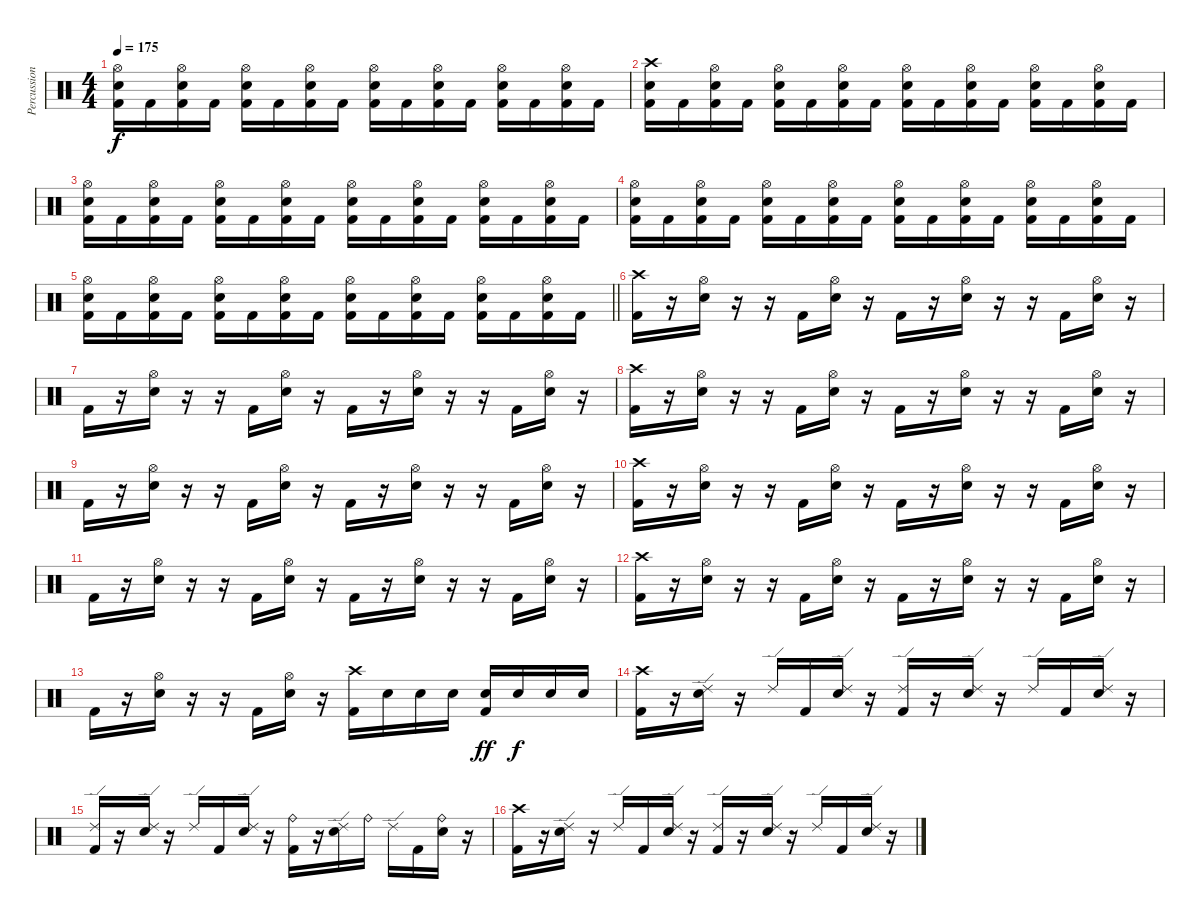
\track ("Percussion" "Percussion") {instrument percussion}
\staff {score}
\articulation defaults
\ts (4 4)
\tempo 175
\clef neutral
\ks c
("Hi-Hat (open)" "Snare (hit) 2" "Kick (hit) 2").16{dy f} "Kick (hit) 2".16 ("Hi-Hat (open)" "Snare (hit) 2" "Kick (hit) 2").16 "Kick (hit) 2".16 ("Hi-Hat (open)" "Snare (hit) 2" "Kick (hit) 2").16 "Kick (hit) 2".16 ("Hi-Hat (open)" "Snare (hit) 2" "Kick (hit) 2").16 "Kick (hit) 2".16 ("Hi-Hat (open)" "Snare (hit) 2" "Kick (hit) 2").16 "Kick (hit) 2".16 ("Hi-Hat (open)" "Snare (hit) 2" "Kick (hit) 2").16 "Kick (hit) 2".16 ("Hi-Hat (open)" "Snare (hit) 2" "Kick (hit) 2").16 "Kick (hit) 2".16 ("Hi-Hat (open)" "Snare (hit) 2" "Kick (hit) 2").16 "Kick (hit) 2".16 |
("Crash high (hit)" "Snare (hit) 2" "Kick (hit) 2").16 "Kick (hit) 2".16 ("Hi-Hat (open)" "Snare (hit) 2" "Kick (hit) 2").16 "Kick (hit) 2".16 ("Hi-Hat (open)" "Snare (hit) 2" "Kick (hit) 2").16 "Kick (hit) 2".16 ("Hi-Hat (open)" "Snare (hit) 2" "Kick (hit) 2").16 "Kick (hit) 2".16 ("Hi-Hat (open)" "Snare (hit) 2" "Kick (hit) 2").16 "Kick (hit) 2".16 ("Hi-Hat (open)" "Snare (hit) 2" "Kick (hit) 2").16 "Kick (hit) 2".16 ("Hi-Hat (open)" "Snare (hit) 2" "Kick (hit) 2").16 "Kick (hit) 2".16 ("Hi-Hat (open)" "Snare (hit) 2" "Kick (hit) 2").16 "Kick (hit) 2".16 |
("Hi-Hat (open)" "Snare (hit) 2" "Kick (hit) 2").16 "Kick (hit) 2".16 ("Hi-Hat (open)" "Snare (hit) 2" "Kick (hit) 2").16 "Kick (hit) 2".16 ("Hi-Hat (open)" "Snare (hit) 2" "Kick (hit) 2").16 "Kick (hit) 2".16 ("Hi-Hat (open)" "Snare (hit) 2" "Kick (hit) 2").16 "Kick (hit) 2".16 ("Hi-Hat (open)" "Snare (hit) 2" "Kick (hit) 2").16 "Kick (hit) 2".16 ("Hi-Hat (open)" "Snare (hit) 2" "Kick (hit) 2").16 "Kick (hit) 2".16 ("Hi-Hat (open)" "Snare (hit) 2" "Kick (hit) 2").16 "Kick (hit) 2".16 ("Hi-Hat (open)" "Snare (hit) 2" "Kick (hit) 2").16 "Kick (hit) 2".16 |
("Hi-Hat (open)" "Snare (hit) 2" "Kick (hit) 2").16 "Kick (hit) 2".16 ("Hi-Hat (open)" "Snare (hit) 2" "Kick (hit) 2").16 "Kick (hit) 2".16 ("Hi-Hat (open)" "Snare (hit) 2" "Kick (hit) 2").16 "Kick (hit) 2".16 ("Hi-Hat (open)" "Snare (hit) 2" "Kick (hit) 2").16 "Kick (hit) 2".16 ("Hi-Hat (open)" "Snare (hit) 2" "Kick (hit) 2").16 "Kick (hit) 2".16 ("Hi-Hat (open)" "Snare (hit) 2" "Kick (hit) 2").16 "Kick (hit) 2".16 ("Hi-Hat (open)" "Snare (hit) 2" "Kick (hit) 2").16 "Kick (hit) 2".16 ("Hi-Hat (open)" "Snare (hit) 2" "Kick (hit) 2").16 "Kick (hit) 2".16 |
\barLineRight lightlight
("Hi-Hat (open)" "Snare (hit) 2" "Kick (hit) 2").16 "Kick (hit) 2".16 ("Hi-Hat (open)" "Snare (hit) 2" "Kick (hit) 2").16 "Kick (hit) 2".16 ("Hi-Hat (open)" "Snare (hit) 2" "Kick (hit) 2").16 "Kick (hit) 2".16 ("Hi-Hat (open)" "Snare (hit) 2" "Kick (hit) 2").16 "Kick (hit) 2".16 ("Hi-Hat (open)" "Snare (hit) 2" "Kick (hit) 2").16 "Kick (hit) 2".16 ("Hi-Hat (open)" "Snare (hit) 2" "Kick (hit) 2").16 "Kick (hit) 2".16 ("Hi-Hat (open)" "Snare (hit) 2" "Kick (hit) 2").16 "Kick (hit) 2".16 ("Hi-Hat (open)" "Snare (hit) 2" "Kick (hit) 2").16 "Kick (hit) 2".16 |
\section ("" "")
("Crash high (hit)" "Kick (hit) 2").16 r.16 ("Hi-Hat (open)" "Snare (hit) 2").16 r.16 r.16 "Kick (hit) 2".16 ("Hi-Hat (open)" "Snare (hit) 2").16 r.16 "Kick (hit) 2".16 r.16 ("Hi-Hat (open)" "Snare (hit) 2").16 r.16 r.16 "Kick (hit) 2".16 ("Hi-Hat (open)" "Snare (hit) 2").16 r.16 |
"Kick (hit) 2".16 r.16 ("Hi-Hat (open)" "Snare (hit) 2").16 r.16 r.16 "Kick (hit) 2".16 ("Hi-Hat (open)" "Snare (hit) 2").16 r.16 "Kick (hit) 2".16 r.16 ("Hi-Hat (open)" "Snare (hit) 2").16 r.16 r.16 "Kick (hit) 2".16 ("Hi-Hat (open)" "Snare (hit) 2").16 r.16 |
("Crash high (hit)" "Kick (hit) 2").16 r.16 ("Hi-Hat (open)" "Snare (hit) 2").16 r.16 r.16 "Kick (hit) 2".16 ("Hi-Hat (open)" "Snare (hit) 2").16 r.16 "Kick (hit) 2".16 r.16 ("Hi-Hat (open)" "Snare (hit) 2").16 r.16 r.16 "Kick (hit) 2".16 ("Hi-Hat (open)" "Snare (hit) 2").16 r.16 |
"Kick (hit) 2".16 r.16 ("Hi-Hat (open)" "Snare (hit) 2").16 r.16 r.16 "Kick (hit) 2".16 ("Hi-Hat (open)" "Snare (hit) 2").16 r.16 "Kick (hit) 2".16 r.16 ("Hi-Hat (open)" "Snare (hit) 2").16 r.16 r.16 "Kick (hit) 2".16 ("Hi-Hat (open)" "Snare (hit) 2").16 r.16 |
("Crash high (hit)" "Kick (hit) 2").16 r.16 ("Hi-Hat (open)" "Snare (hit) 2").16 r.16 r.16 "Kick (hit) 2".16 ("Hi-Hat (open)" "Snare (hit) 2").16 r.16 "Kick (hit) 2".16 r.16 ("Hi-Hat (open)" "Snare (hit) 2").16 r.16 r.16 "Kick (hit) 2".16 ("Hi-Hat (open)" "Snare (hit) 2").16 r.16 |
"Kick (hit) 2".16 r.16 ("Hi-Hat (open)" "Snare (hit) 2").16 r.16 r.16 "Kick (hit) 2".16 ("Hi-Hat (open)" "Snare (hit) 2").16 r.16 "Kick (hit) 2".16 r.16 ("Hi-Hat (open)" "Snare (hit) 2").16 r.16 r.16 "Kick (hit) 2".16 ("Hi-Hat (open)" "Snare (hit) 2").16 r.16 |
("Crash high (hit)" "Kick (hit) 2").16 r.16 ("Hi-Hat (open)" "Snare (hit) 2").16 r.16 r.16 "Kick (hit) 2".16 ("Hi-Hat (open)" "Snare (hit) 2").16 r.16 "Kick (hit) 2".16 r.16 ("Hi-Hat (open)" "Snare (hit) 2").16 r.16 r.16 "Kick (hit) 2".16 ("Hi-Hat (open)" "Snare (hit) 2").16 r.16 |
"Kick (hit) 2".16 r.16 ("Hi-Hat (open)" "Snare (hit) 2").16 r.16 r.16 "Kick (hit) 2".16 ("Hi-Hat (open)" "Snare (hit) 2").16 r.16 ("Crash high (hit)" "Kick (hit) 2").16 "Snare (hit) 2".16 "Snare (hit) 2".16 "Snare (hit) 2".16 ("Snare (hit) 2" "Kick (hit) 2").16{dy ff} "Snare (hit) 2".16{dy f} "Snare (hit) 2".16 "Snare (hit) 2".16 |
("Crash high (hit)" "Kick (hit) 2").16 r.16 ("Ride (edge) 2" "Snare (hit) 2").16 r.16 "Ride (edge) 2".16 "Kick (hit) 2".16 ("Ride (edge) 2" "Snare (hit) 2").16 r.16 ("Ride (edge) 2" "Kick (hit) 2").16 r.16 ("Ride (edge) 2" "Snare (hit) 2").16 r.16 "Ride (edge) 2".16 "Kick (hit) 2".16 ("Ride (edge) 2" "Snare (hit) 2").16 r.16 |
("Ride (edge) 2" "Kick (hit) 2").16 r.16 ("Ride (edge) 2" "Snare (hit) 2").16 r.16 "Ride (edge) 2".16 "Kick (hit) 2".16 ("Ride (edge) 2" "Snare (hit) 2").16 r.16 ("Ride (bell)" "Kick (hit) 2").16 r.16 ("Ride (edge) 2" "Snare (hit) 2").16 "Ride (bell)".16 "Ride (edge) 2".16 "Kick (hit) 2".16 ("Ride (bell)" "Snare (hit) 2").16 r.16 |
("Crash high (hit)" "Kick (hit) 2").16 r.16 ("Ride (edge) 2" "Snare (hit) 2").16 r.16 "Ride (edge) 2".16 "Kick (hit) 2".16 ("Ride (edge) 2" "Snare (hit) 2").16 r.16 ("Ride (edge) 2" "Kick (hit) 2").16 r.16 ("Ride (edge) 2" "Snare (hit) 2").16 r.16 "Ride (edge) 2".16 "Kick (hit) 2".16 ("Ride (edge) 2" "Snare (hit) 2").16 r.16
